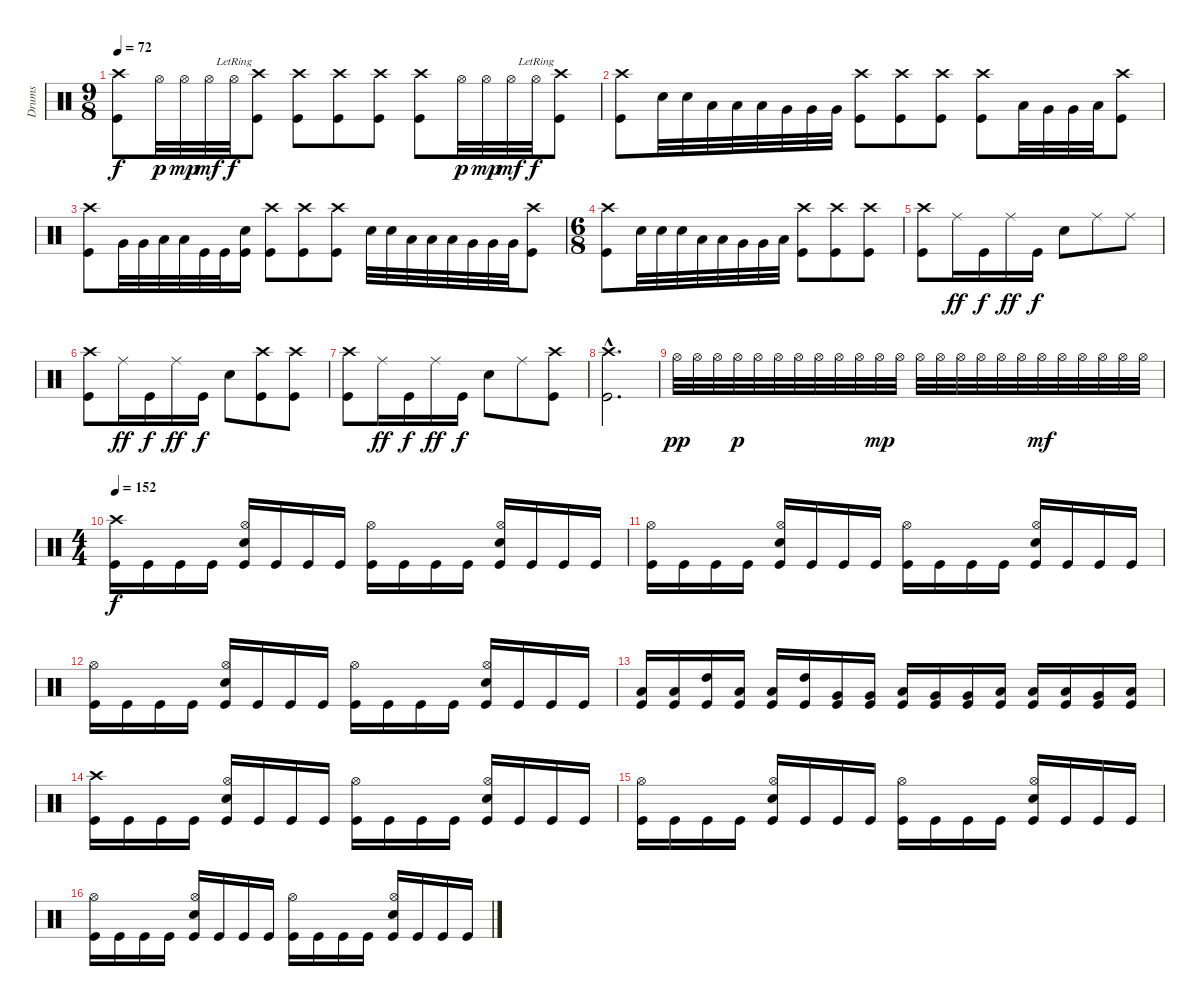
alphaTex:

\track ("Drums" "Drums") {instrument percussion}
\staff {score}
\articulation defaults
\ts (9 8)
\tempo 72
\clef neutral
\ks c
("Crash high (hit)" "Kick (hit)").8{dy f} "Hi-Hat (open)".32{dy p} "Hi-Hat (open)".32{dy mp} "Hi-Hat (open)".32{dy mf} "Hi-Hat (open)"{lr}.32{dy f} ("Crash high (hit)" "Kick (hit)").8 ("Crash high (hit)" "Kick (hit)").8 ("Crash high (hit)" "Kick (hit)").8 ("Crash high (hit)" "Kick (hit)").8 ("Crash high (hit)" "Kick (hit)").8 "Hi-Hat (open)".32{dy p} "Hi-Hat (open)".32{dy mp} "Hi-Hat (open)".32{dy mf} "Hi-Hat (open)"{lr}.32{dy f} ("Crash high (hit)" "Kick (hit)").8 |
("Crash high (hit)" "Kick (hit)").8 "Snare (hit) 2".32 "Snare (hit) 2".32 "Low Tom (hit)".32 "Low Tom (hit)".32 "Low Tom (hit)".32 "Very Low Tom (hit)".32 "Very Low Tom (hit)".32 "Very Low Tom (hit)".32 ("Crash high (hit)" "Kick (hit)").8 ("Crash high (hit)" "Kick (hit)").8 ("Crash high (hit)" "Kick (hit)").8 ("Crash high (hit)" "Kick (hit)").8 "Low Tom (hit)".32 "Very Low Tom (hit)".32 "Very Low Tom (hit)".32 "Low Floor Tom (hit)".32 ("Crash high (hit)" "Kick (hit)").8 |
("Crash high (hit)" "Kick (hit)").8 "Very Low Tom (hit)".32 "Very Low Tom (hit)".32 "Low Floor Tom (hit)".32 "Low Floor Tom (hit)".32 "Kick (hit)".32 "Kick (hit)".32 ("Electric Snare (hit)" "Kick (hit)").16 ("Crash high (hit)" "Kick (hit)").8 ("Crash high (hit)" "Kick (hit)").8 ("Crash high (hit)" "Kick (hit)").8 "Snare (hit) 2".32 "Snare (hit) 2".32 "Low Tom (hit)".32 "Low Tom (hit)".32 "Low Tom (hit)".32 "Very Low Tom (hit)".32 "Very Low Tom (hit)".32 "Very Low Tom (hit)".32 ("Crash high (hit)" "Kick (hit)").8 |
\ts (6 8)
("Crash high (hit)" "Kick (hit)").8 "Snare (hit) 2".32 "Snare (hit) 2".32 "Snare (hit) 2".32 "Low Tom (hit)".32 "Low Tom (hit)".32 "Very Low Tom (hit)".32 "Very Low Tom (hit)".32 "Low Floor Tom (hit)".32 ("Crash high (hit)" "Kick (hit)").8 ("Crash high (hit)" "Kick (hit)").8 ("Crash high (hit)" "Kick (hit)").8 |
("Crash high (hit)" "Kick (hit)").8 "Ride (middle)".16{dy ff} "Kick (hit)".16{dy f} "Ride (middle)".16{dy ff} "Kick (hit)".16{dy f} "Snare (hit) 2".8 "Ride (middle)".8 "Ride (middle)".8 |
("Crash high (hit)" "Kick (hit)").8 "Ride (middle)".16{dy ff} "Kick (hit)".16{dy f} "Ride (middle)".16{dy ff} "Kick (hit)".16{dy f} "Snare (hit) 2".8 ("Crash high (hit)" "Kick (hit)").8 ("Crash high (hit)" "Kick (hit)").8 |
("Crash high (hit)" "Kick (hit)").8 "Ride (middle)".16{dy ff} "Kick (hit)".16{dy f} "Ride (middle)".16{dy ff} "Kick (hit)".16{dy f} "Snare (hit) 2".8 "Ride (middle)".8 ("Crash high (hit)" "Kick (hit)").8 |
("Crash high (hit)"{hac} "Kick (hit)"{hac}).2{d} |
"Hi-Hat (open)".32{dy pp} "Hi-Hat (open)".32 "Hi-Hat (open)".32 "Hi-Hat (open)".32{dy p} "Hi-Hat (open)".32 "Hi-Hat (open)".32 "Hi-Hat (open)".32 "Hi-Hat (open)".32 "Hi-Hat (open)".32 "Hi-Hat (open)".32 "Hi-Hat (open)".32{dy mp} "Hi-Hat (open)".32 "Hi-Hat (open)".32 "Hi-Hat (open)".32 "Hi-Hat (open)".32 "Hi-Hat (open)".32 "Hi-Hat (open)".32 "Hi-Hat (open)".32 "Hi-Hat (open)".32{dy mf} "Hi-Hat (open)".32 "Hi-Hat (open)".32 "Hi-Hat (open)".32 "Hi-Hat (open)".32 "Hi-Hat (open)".32 |
\ts (4 4)
\tempo 152
("Crash high (hit)" "Kick (hit)").16{dy f} "Kick (hit)".16 "Kick (hit)".16 "Kick (hit)".16 ("Hi-Hat (open)" "Snare (hit) 2" "Kick (hit)").16 "Kick (hit)".16 "Kick (hit)".16 "Kick (hit)".16 ("Hi-Hat (open)" "Kick (hit)").16 "Kick (hit)".16 "Kick (hit)".16 "Kick (hit)".16 ("Hi-Hat (open)" "Snare (hit) 2" "Kick (hit)").16 "Kick (hit)".16 "Kick (hit)".16 "Kick (hit)".16 |
("Hi-Hat (open)" "Kick (hit)").16 "Kick (hit)".16 "Kick (hit)".16 "Kick (hit)".16 ("Hi-Hat (open)" "Snare (hit) 2" "Kick (hit)").16 "Kick (hit)".16 "Kick (hit)".16 "Kick (hit)".16 ("Hi-Hat (open)" "Kick (hit)").16 "Kick (hit)".16 "Kick (hit)".16 "Kick (hit)".16 ("Hi-Hat (open)" "Snare (hit) 2" "Kick (hit)").16 "Kick (hit)".16 "Kick (hit)".16 "Kick (hit)".16 |
("Hi-Hat (open)" "Kick (hit)").16 "Kick (hit)".16 "Kick (hit)".16 "Kick (hit)".16 ("Hi-Hat (open)" "Snare (hit) 2" "Kick (hit)").16 "Kick (hit)".16 "Kick (hit)".16 "Kick (hit)".16 ("Hi-Hat (open)" "Kick (hit)").16 "Kick (hit)".16 "Kick (hit)".16 "Kick (hit)".16 ("Hi-Hat (open)" "Snare (hit) 2" "Kick (hit)").16 "Kick (hit)".16 "Kick (hit)".16 "Kick (hit)".16 |
("Low Tom (hit)" "Kick (hit)").16 ("Low Tom (hit)" "Kick (hit)").16 ("High Tom (hit)" "Kick (hit)").16 ("Low Tom (hit)" "Kick (hit)").16 ("Low Tom (hit)" "Kick (hit)").16 ("High Tom (hit)" "Kick (hit)").16 ("Very Low Tom (hit)" "Kick (hit)").16 ("Very Low Tom (hit)" "Kick (hit)").16 ("Low Tom (hit)" "Kick (hit)").16 ("Very Low Tom (hit)" "Kick (hit)").16 ("Very Low Tom (hit)" "Kick (hit)").16 ("Low Tom (hit)" "Kick (hit)").16 ("Low Floor Tom (hit)" "Kick (hit)").16 ("Low Floor Tom (hit)" "Kick (hit)").16 ("Very Low Tom (hit)" "Kick (hit)").16 ("Low Floor Tom (hit)" "Kick (hit)").16 |
("Crash high (hit)" "Kick (hit)").16 "Kick (hit)".16 "Kick (hit)".16 "Kick (hit)".16 ("Hi-Hat (open)" "Snare (hit) 2" "Kick (hit)").16 "Kick (hit)".16 "Kick (hit)".16 "Kick (hit)".16 ("Hi-Hat (open)" "Kick (hit)").16 "Kick (hit)".16 "Kick (hit)".16 "Kick (hit)".16 ("Hi-Hat (open)" "Snare (hit) 2" "Kick (hit)").16 "Kick (hit)".16 "Kick (hit)".16 "Kick (hit)".16 |
("Hi-Hat (open)" "Kick (hit)").16 "Kick (hit)".16 "Kick (hit)".16 "Kick (hit)".16 ("Hi-Hat (open)" "Snare (hit) 2" "Kick (hit)").16 "Kick (hit)".16 "Kick (hit)".16 "Kick (hit)".16 ("Hi-Hat (open)" "Kick (hit)").16 "Kick (hit)".16 "Kick (hit)".16 "Kick (hit)".16 ("Hi-Hat (open)" "Snare (hit) 2" "Kick (hit)").16 "Kick (hit)".16 "Kick (hit)".16 "Kick (hit)".16 |
("Hi-Hat (open)" "Kick (hit)").16 "Kick (hit)".16 "Kick (hit)".16 "Kick (hit)".16 ("Hi-Hat (open)" "Snare (hit) 2" "Kick (hit)").16 "Kick (hit)".16 "Kick (hit)".16 "Kick (hit)".16 ("Hi-Hat (open)" "Kick (hit)").16 "Kick (hit)".16 "Kick (hit)".16 "Kick (hit)".16 ("Hi-Hat (open)" "Snare (hit) 2" "Kick (hit)").16 "Kick (hit)".16 "Kick (hit)".16 "Kick (hit)".16
